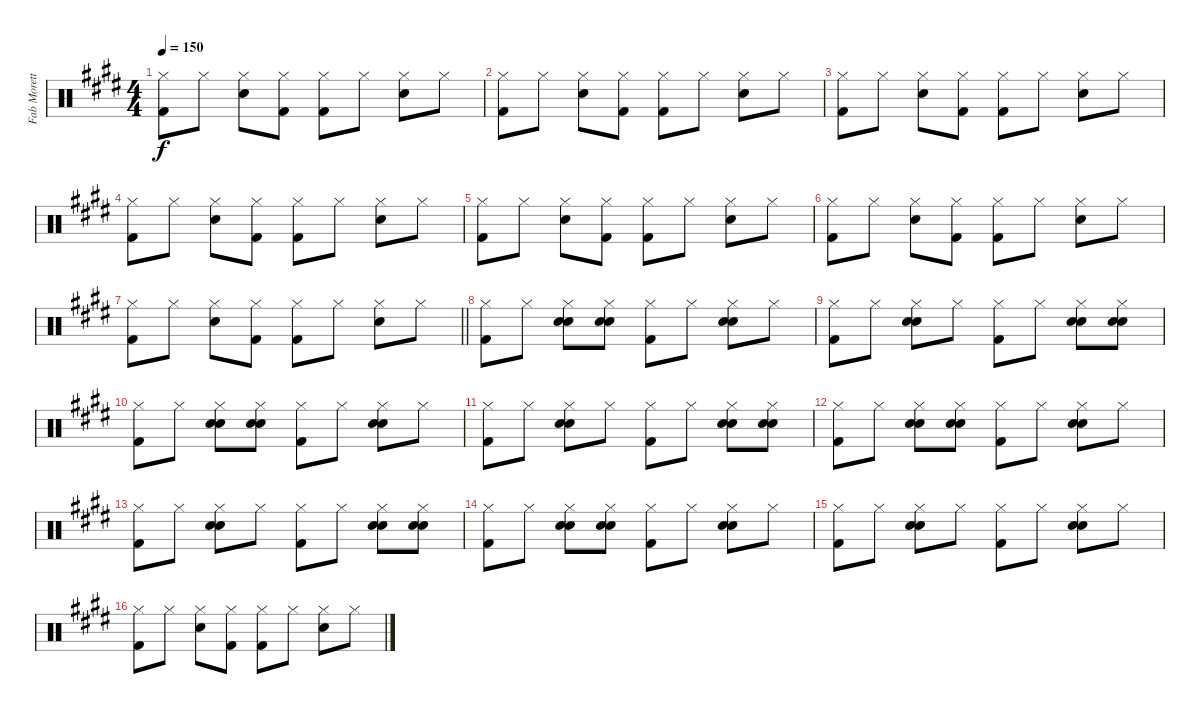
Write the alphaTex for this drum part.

\track ("Fab Moretti - Drums" "Fab Morett") {instrument percussion}
\staff {score}
\articulation defaults
\ts (4 4)
\tempo 150
\clef neutral
\ks e
("Hi-Hat (closed)" "Kick (hit) 2").8{dy f} "Hi-Hat (closed)".8 ("Hi-Hat (closed)" "Snare (hit) 2").8 ("Hi-Hat (closed)" "Kick (hit) 2").8 ("Hi-Hat (closed)" "Kick (hit) 2").8 "Hi-Hat (closed)".8 ("Hi-Hat (closed)" "Snare (hit) 2").8 "Hi-Hat (closed)".8 |
("Hi-Hat (closed)" "Kick (hit) 2").8 "Hi-Hat (closed)".8 ("Hi-Hat (closed)" "Snare (hit) 2").8 ("Hi-Hat (closed)" "Kick (hit) 2").8 ("Hi-Hat (closed)" "Kick (hit) 2").8 "Hi-Hat (closed)".8 ("Hi-Hat (closed)" "Snare (hit) 2").8 "Hi-Hat (closed)".8 |
("Hi-Hat (closed)" "Kick (hit) 2").8 "Hi-Hat (closed)".8 ("Hi-Hat (closed)" "Snare (hit) 2").8 ("Hi-Hat (closed)" "Kick (hit) 2").8 ("Hi-Hat (closed)" "Kick (hit) 2").8 "Hi-Hat (closed)".8 ("Hi-Hat (closed)" "Snare (hit) 2").8 "Hi-Hat (closed)".8 |
("Hi-Hat (closed)" "Kick (hit) 2").8 "Hi-Hat (closed)".8 ("Hi-Hat (closed)" "Snare (hit) 2").8 ("Hi-Hat (closed)" "Kick (hit) 2").8 ("Hi-Hat (closed)" "Kick (hit) 2").8 "Hi-Hat (closed)".8 ("Hi-Hat (closed)" "Snare (hit) 2").8 "Hi-Hat (closed)".8 |
("Hi-Hat (closed)" "Kick (hit) 2").8 "Hi-Hat (closed)".8 ("Hi-Hat (closed)" "Snare (hit) 2").8 ("Hi-Hat (closed)" "Kick (hit) 2").8 ("Hi-Hat (closed)" "Kick (hit) 2").8 "Hi-Hat (closed)".8 ("Hi-Hat (closed)" "Snare (hit) 2").8 "Hi-Hat (closed)".8 |
("Hi-Hat (closed)" "Kick (hit) 2").8 "Hi-Hat (closed)".8 ("Hi-Hat (closed)" "Snare (hit) 2").8 ("Hi-Hat (closed)" "Kick (hit) 2").8 ("Hi-Hat (closed)" "Kick (hit) 2").8 "Hi-Hat (closed)".8 ("Hi-Hat (closed)" "Snare (hit) 2").8 "Hi-Hat (closed)".8 |
\barLineRight lightlight
("Hi-Hat (closed)" "Kick (hit) 2").8 "Hi-Hat (closed)".8 ("Hi-Hat (closed)" "Snare (hit) 2").8 ("Hi-Hat (closed)" "Kick (hit) 2").8 ("Hi-Hat (closed)" "Kick (hit) 2").8 "Hi-Hat (closed)".8 ("Hi-Hat (closed)" "Snare (hit) 2").8 "Hi-Hat (closed)".8 |
("Hi-Hat (closed)" "Kick (hit) 2").8 "Hi-Hat (closed)".8 ("Hi-Hat (closed)" "Hand Clap (hit)" "Snare (hit) 2").8 ("Hi-Hat (closed)" "Hand Clap (hit)" "Snare (hit) 2").8 ("Hi-Hat (closed)" "Kick (hit) 2").8 "Hi-Hat (closed)".8 ("Hi-Hat (closed)" "Hand Clap (hit)" "Snare (hit) 2").8 "Hi-Hat (closed)".8 |
("Hi-Hat (closed)" "Kick (hit) 2").8 "Hi-Hat (closed)".8 ("Hi-Hat (closed)" "Hand Clap (hit)" "Snare (hit) 2").8 "Hi-Hat (closed)".8 ("Hi-Hat (closed)" "Kick (hit) 2").8 "Hi-Hat (closed)".8 ("Hi-Hat (closed)" "Hand Clap (hit)" "Snare (hit) 2").8 ("Hi-Hat (closed)" "Hand Clap (hit)" "Snare (hit) 2").8 |
("Hi-Hat (closed)" "Kick (hit) 2").8 "Hi-Hat (closed)".8 ("Hi-Hat (closed)" "Hand Clap (hit)" "Snare (hit) 2").8 ("Hi-Hat (closed)" "Hand Clap (hit)" "Snare (hit) 2").8 ("Hi-Hat (closed)" "Kick (hit) 2").8 "Hi-Hat (closed)".8 ("Hi-Hat (closed)" "Hand Clap (hit)" "Snare (hit) 2").8 "Hi-Hat (closed)".8 |
("Hi-Hat (closed)" "Kick (hit) 2").8 "Hi-Hat (closed)".8 ("Hi-Hat (closed)" "Hand Clap (hit)" "Snare (hit) 2").8 "Hi-Hat (closed)".8 ("Hi-Hat (closed)" "Kick (hit) 2").8 "Hi-Hat (closed)".8 ("Hi-Hat (closed)" "Hand Clap (hit)" "Snare (hit) 2").8 ("Hi-Hat (closed)" "Hand Clap (hit)" "Snare (hit) 2").8 |
("Hi-Hat (closed)" "Kick (hit) 2").8 "Hi-Hat (closed)".8 ("Hi-Hat (closed)" "Hand Clap (hit)" "Snare (hit) 2").8 ("Hi-Hat (closed)" "Hand Clap (hit)" "Snare (hit) 2").8 ("Hi-Hat (closed)" "Kick (hit) 2").8 "Hi-Hat (closed)".8 ("Hi-Hat (closed)" "Hand Clap (hit)" "Snare (hit) 2").8 "Hi-Hat (closed)".8 |
("Hi-Hat (closed)" "Kick (hit) 2").8 "Hi-Hat (closed)".8 ("Hi-Hat (closed)" "Hand Clap (hit)" "Snare (hit) 2").8 "Hi-Hat (closed)".8 ("Hi-Hat (closed)" "Kick (hit) 2").8 "Hi-Hat (closed)".8 ("Hi-Hat (closed)" "Hand Clap (hit)" "Snare (hit) 2").8 ("Hi-Hat (closed)" "Hand Clap (hit)" "Snare (hit) 2").8 |
("Hi-Hat (closed)" "Kick (hit) 2").8 "Hi-Hat (closed)".8 ("Hi-Hat (closed)" "Hand Clap (hit)" "Snare (hit) 2").8 ("Hi-Hat (closed)" "Hand Clap (hit)" "Snare (hit) 2").8 ("Hi-Hat (closed)" "Kick (hit) 2").8 "Hi-Hat (closed)".8 ("Hi-Hat (closed)" "Hand Clap (hit)" "Snare (hit) 2").8 "Hi-Hat (closed)".8 |
("Hi-Hat (closed)" "Kick (hit) 2").8 "Hi-Hat (closed)".8 ("Hi-Hat (closed)" "Hand Clap (hit)" "Snare (hit) 2").8 "Hi-Hat (closed)".8 ("Hi-Hat (closed)" "Kick (hit) 2").8 "Hi-Hat (closed)".8 ("Hi-Hat (closed)" "Hand Clap (hit)" "Snare (hit) 2").8 "Hi-Hat (closed)".8 |
("Hi-Hat (closed)" "Kick (hit) 2").8 "Hi-Hat (closed)".8 ("Hi-Hat (closed)" "Snare (hit) 2").8 ("Hi-Hat (closed)" "Kick (hit) 2").8 ("Hi-Hat (closed)" "Kick (hit) 2").8 "Hi-Hat (closed)".8 ("Hi-Hat (closed)" "Snare (hit) 2").8 "Hi-Hat (closed)".8
